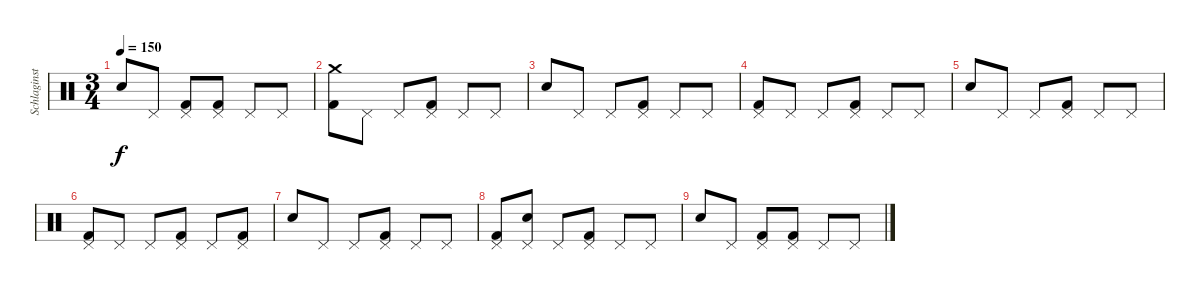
\track ("Schlaginstrumente - Auswahl" "Schlaginst") {instrument percussion}
\staff {score}
\articulation defaults
\ts (3 4)
\tempo 150
\clef neutral
\ks c "Electric Snare (hit)".8{dy f} "Pedal Hi-Hat (hit)".8
("Pedal Hi-Hat (hit)" "Kick (hit) 2").8 ("Pedal Hi-Hat (hit)" "Kick (hit) 2").8 "Pedal Hi-Hat (hit)".8 "Pedal Hi-Hat (hit)".8 |
("Crash medium (hit)" "Kick (hit) 2").8{volume 0} "Pedal Hi-Hat (hit)".8 "Pedal Hi-Hat (hit)".8 ("Pedal Hi-Hat (hit)" "Kick (hit) 2").8 "Pedal Hi-Hat (hit)".8 "Pedal Hi-Hat (hit)".8 |
"Electric Snare (hit)".8 "Pedal Hi-Hat (hit)".8 "Pedal Hi-Hat (hit)".8 ("Pedal Hi-Hat (hit)" "Kick (hit) 2").8 "Pedal Hi-Hat (hit)".8 "Pedal Hi-Hat (hit)".8 |
("Pedal Hi-Hat (hit)" "Kick (hit) 2").8 "Pedal Hi-Hat (hit)".8 "Pedal Hi-Hat (hit)".8 ("Pedal Hi-Hat (hit)" "Kick (hit) 2").8 "Pedal Hi-Hat (hit)".8 "Pedal Hi-Hat (hit)".8 |
"Electric Snare (hit)".8 "Pedal Hi-Hat (hit)".8 "Pedal Hi-Hat (hit)".8 ("Pedal Hi-Hat (hit)" "Kick (hit) 2").8 "Pedal Hi-Hat (hit)".8 "Pedal Hi-Hat (hit)".8 |
("Pedal Hi-Hat (hit)" "Kick (hit) 2").8 "Pedal Hi-Hat (hit)".8 "Pedal Hi-Hat (hit)".8 ("Pedal Hi-Hat (hit)" "Kick (hit) 2").8 "Pedal Hi-Hat (hit)".8 ("Pedal Hi-Hat (hit)" "Kick (hit) 2").8 |
"Electric Snare (hit)".8 "Pedal Hi-Hat (hit)".8 "Pedal Hi-Hat (hit)".8 ("Pedal Hi-Hat (hit)" "Kick (hit) 2").8 "Pedal Hi-Hat (hit)".8 "Pedal Hi-Hat (hit)".8 |
("Pedal Hi-Hat (hit)" "Kick (hit) 2").8 ("Pedal Hi-Hat (hit)" "Electric Snare (hit)").8 "Pedal Hi-Hat (hit)".8 ("Pedal Hi-Hat (hit)" "Kick (hit) 2").8 "Pedal Hi-Hat (hit)".8 "Pedal Hi-Hat (hit)".8 |
"Electric Snare (hit)".8 "Pedal Hi-Hat (hit)".8 ("Pedal Hi-Hat (hit)" "Kick (hit) 2").8 ("Pedal Hi-Hat (hit)" "Kick (hit) 2").8 "Pedal Hi-Hat (hit)".8 "Pedal Hi-Hat (hit)".8
